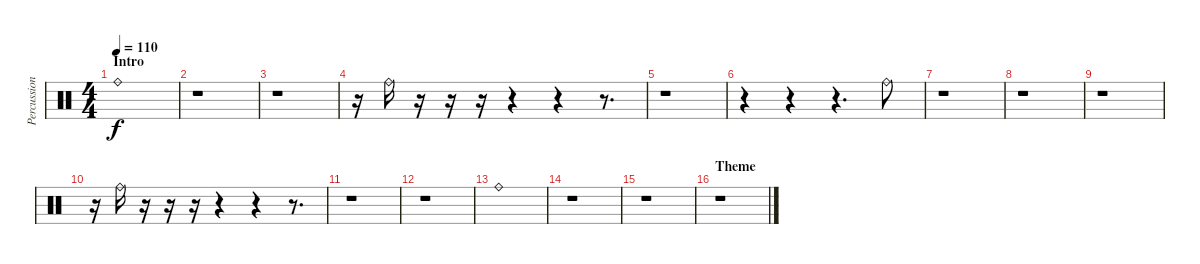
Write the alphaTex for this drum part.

\track ("Percussions" "Percussion") {instrument percussion}
\staff {score}
\articulation defaults
\ts (4 4)
\section ("" "Intro")
\tempo 110
\clef neutral
\ks c "Ride (bell)".1{dy f}
|
r.1 |
r.1 |
r.16 "Ride (bell)".16 r.16 r.16 r.16 r.4 r.4 r.8{d} |
r.1 |
r.4 r.4 r.4{d} "Ride (bell)".8 |
r.1 |
r.1 |
r.1 |
r.16 "Ride (bell)".16 r.16 r.16 r.16 r.4 r.4 r.8{d} |
r.1 |
r.1 |
"Ride (bell)".1 |
r.1 |
r.1 |
\section ("" "Theme")
r.1
